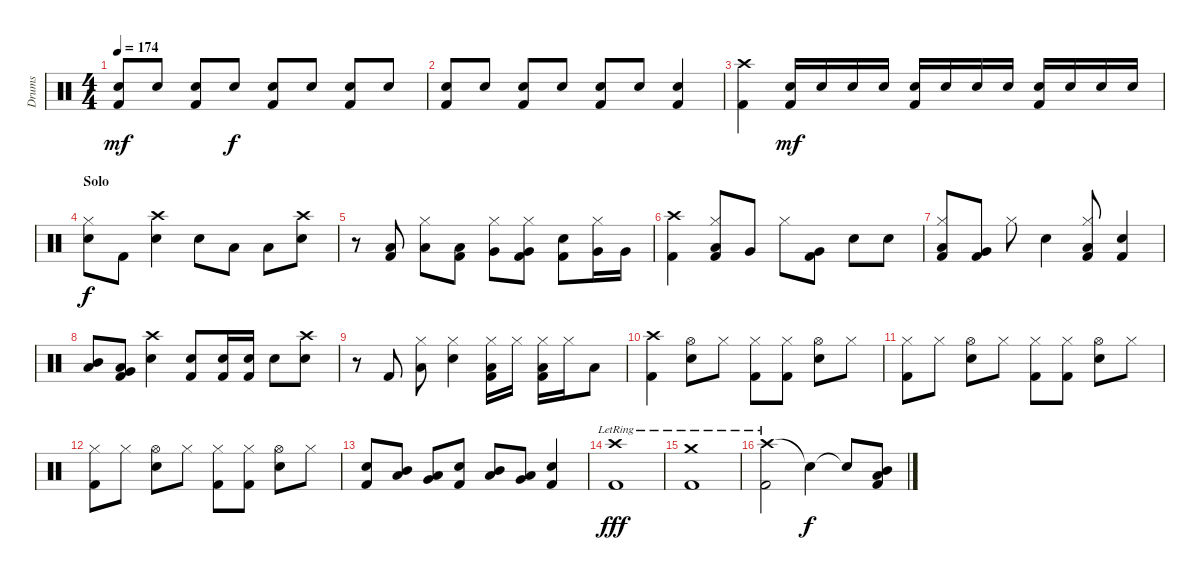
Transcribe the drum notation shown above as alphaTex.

\track ("Drums" "Drums") {instrument percussion}
\staff {score}
\articulation defaults
\ts (4 4)
\tempo 174
\clef neutral
\ks c
("Electric Snare (hit)" "Kick (hit) 2").8{dy mf} "Electric Snare (hit)".8 ("Electric Snare (hit)" "Kick (hit) 2").8 "Electric Snare (hit)".8{dy f} ("Electric Snare (hit)" "Kick (hit) 2").8 "Electric Snare (hit)".8 ("Electric Snare (hit)" "Kick (hit) 2").8 "Electric Snare (hit)".8 |
("Electric Snare (hit)" "Kick (hit) 2").8 "Electric Snare (hit)".8 ("Electric Snare (hit)" "Kick (hit) 2").8 "Electric Snare (hit)".8 ("Electric Snare (hit)" "Kick (hit) 2").8 "Electric Snare (hit)".8 ("Electric Snare (hit)" "Kick (hit) 2").4 |
("Crash high (hit)" "Kick (hit) 2").4 ("Electric Snare (hit)" "Kick (hit) 2").16{dy mf} "Electric Snare (hit)".16 "Electric Snare (hit)".16 "Electric Snare (hit)".16 ("Electric Snare (hit)" "Kick (hit) 2").16 "Electric Snare (hit)".16 "Electric Snare (hit)".16 "Electric Snare (hit)".16 ("Electric Snare (hit)" "Kick (hit) 2").16 "Electric Snare (hit)".16 "Electric Snare (hit)".16 "Electric Snare (hit)".16 |
\section ("" "Solo")
("Hi-Hat (closed)" "Electric Snare (hit)").8{dy f} "Kick (hit) 2".8 ("Crash high (hit)" "Electric Snare (hit)").4 "Electric Snare (hit)".8 "Low Tom (hit)".8 "Low Tom (hit)".8 ("Crash high (hit)" "Electric Snare (hit)").8 |
r.8 ("Low Tom (hit)" "Kick (hit) 2").8 ("Hi-Hat (closed)" "Low Tom (hit)").8 ("Low Tom (hit)" "Kick (hit) 2").8 ("Hi-Hat (closed)" "Very Low Tom (hit)").8 ("Hi-Hat (closed)" "Very Low Tom (hit)" "Kick (hit) 2").8 ("Electric Snare (hit)" "Kick (hit) 2").8 ("Hi-Hat (closed)" "Very Low Tom (hit)").16 "Very Low Tom (hit)".16 |
("Crash high (hit)" "Kick (hit) 2").4 ("Hi-Hat (closed)" "Low Tom (hit)" "Kick (hit) 2").8 "Very Low Tom (hit)".8 "Hi-Hat (closed)".8 ("Very Low Tom (hit)" "Kick (hit) 2").8 "Electric Snare (hit)".8 "Electric Snare (hit)".8 |
("Hi-Hat (closed)" "Low Tom (hit)" "Kick (hit) 2").8 ("Very Low Tom (hit)" "Kick (hit) 2").8 "Hi-Hat (closed)".8 "Electric Snare (hit)".4 ("Hi-Hat (closed)" "Low Tom (hit)" "Kick (hit) 2").8 ("Electric Snare (hit)" "Kick (hit) 2").4 |
("Mid Tom (hit)" "Low Tom (hit)").8 ("Low Tom (hit)" "Very Low Tom (hit)" "Kick (hit) 2").8 ("Crash high (hit)" "Electric Snare (hit)").4 ("Electric Snare (hit)" "Kick (hit) 2").8 ("Electric Snare (hit)" "Kick (hit) 2").16 ("Electric Snare (hit)" "Kick (hit) 2").16 "Electric Snare (hit)".8 ("Crash high (hit)" "Electric Snare (hit)").8 |
r.8 "Kick (hit) 2".8 ("Hi-Hat (closed)" "Low Tom (hit)").8 ("Hi-Hat (closed)" "Electric Snare (hit)").4 ("Hi-Hat (closed)" "Low Tom (hit)" "Kick (hit) 2").16 "Hi-Hat (closed)".16 ("Hi-Hat (closed)" "Low Tom (hit)" "Kick (hit) 2").16 "Hi-Hat (closed)".16 "Low Tom (hit)".8 |
("Crash high (hit)" "Kick (hit) 2").4 ("Hi-Hat (open)" "Electric Snare (hit)").8 "Hi-Hat (closed)".8 ("Hi-Hat (closed)" "Kick (hit) 2").8 ("Hi-Hat (closed)" "Kick (hit) 2").8 ("Hi-Hat (open)" "Electric Snare (hit)").8 "Hi-Hat (closed)".8 |
("Hi-Hat (closed)" "Kick (hit) 2").8 "Hi-Hat (closed)".8 ("Hi-Hat (open)" "Electric Snare (hit)").8 "Hi-Hat (closed)".8 ("Hi-Hat (closed)" "Kick (hit) 2").8 ("Hi-Hat (closed)" "Kick (hit) 2").8 ("Hi-Hat (open)" "Electric Snare (hit)").8 "Hi-Hat (closed)".8 |
("Hi-Hat (closed)" "Kick (hit) 2").8 "Hi-Hat (closed)".8 ("Hi-Hat (open)" "Electric Snare (hit)").8 "Hi-Hat (closed)".8 ("Hi-Hat (closed)" "Kick (hit) 2").8 ("Hi-Hat (closed)" "Kick (hit) 2").8 ("Hi-Hat (open)" "Electric Snare (hit)").8 "Hi-Hat (closed)".8 |
("Electric Snare (hit)" "Kick (hit) 2").8 ("Mid Tom (hit)" "Low Tom (hit)").8 ("Low Tom (hit)" "Very Low Tom (hit)").8 ("Electric Snare (hit)" "Kick (hit) 2").8 ("Mid Tom (hit)" "Low Tom (hit)").8 ("Low Tom (hit)" "Very Low Tom (hit)").8 ("Electric Snare (hit)" "Kick (hit) 2").4 |
("Crash high (hit)"{lr} "Kick (hit) 2").1{dy fff} |
("Crash medium (hit)"{lr} "Kick (hit) 2").1 |
("Crash high (hit)"{lr} "Kick (hit) 2").2 "Snare (hit)"{t}.4{dy f} "Snare (hit)"{t}.8 ("Mid Tom (hit)" "Low Tom (hit)" "Kick (hit) 2").8
